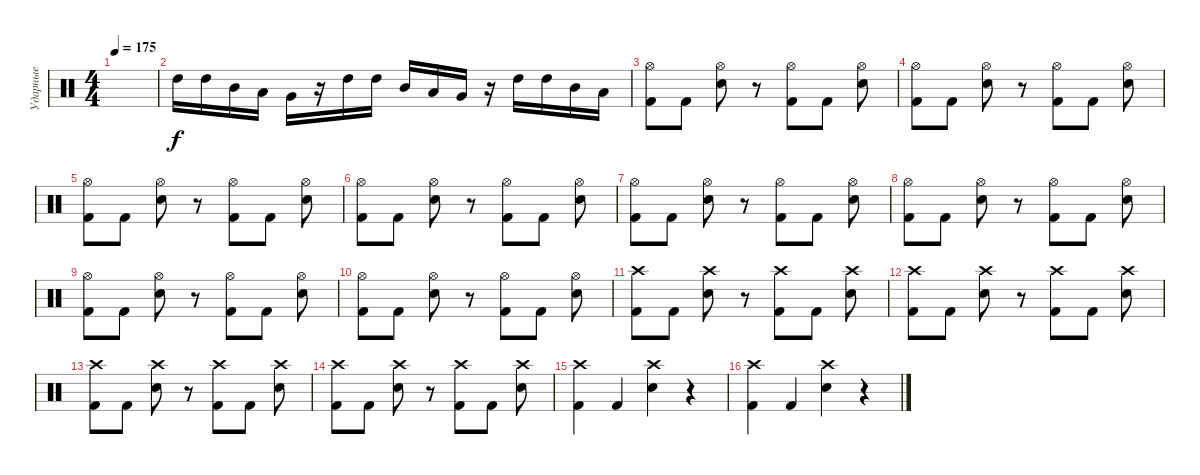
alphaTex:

\track ("Ударные" "Ударные") {instrument percussion}
\staff {score}
\articulation defaults
\ts (4 4)
\tempo 175
\clef neutral
\ks c
|
"High Tom (hit)".16{dy f} "High Tom (hit)".16 "Mid Tom (hit)".16 "Low Tom (hit)".16 "Very Low Tom (hit)".16 r.16 "High Tom (hit)".16 "High Tom (hit)".16 "Mid Tom (hit)".16 "Low Tom (hit)".16 "Very Low Tom (hit)".16 r.16 "High Tom (hit)".16 "High Tom (hit)".16 "Mid Tom (hit)".16 "Low Tom (hit)".16 |
("Kick (hit) 2" "Hi-Hat (open)").8 "Kick (hit) 2".8 ("Electric Snare (hit)" "Hi-Hat (open)").8 r.8 ("Kick (hit) 2" "Hi-Hat (open)").8 "Kick (hit) 2".8 ("Electric Snare (hit)" "Hi-Hat (open)").8 |
("Kick (hit) 2" "Hi-Hat (open)").8 "Kick (hit) 2".8 ("Electric Snare (hit)" "Hi-Hat (open)").8 r.8 ("Kick (hit) 2" "Hi-Hat (open)").8 "Kick (hit) 2".8 ("Electric Snare (hit)" "Hi-Hat (open)").8 |
("Kick (hit) 2" "Hi-Hat (open)").8 "Kick (hit) 2".8 ("Electric Snare (hit)" "Hi-Hat (open)").8 r.8 ("Kick (hit) 2" "Hi-Hat (open)").8 "Kick (hit) 2".8 ("Electric Snare (hit)" "Hi-Hat (open)").8 |
("Kick (hit) 2" "Hi-Hat (open)").8 "Kick (hit) 2".8 ("Electric Snare (hit)" "Hi-Hat (open)").8 r.8 ("Kick (hit) 2" "Hi-Hat (open)").8 "Kick (hit) 2".8 ("Electric Snare (hit)" "Hi-Hat (open)").8 |
("Kick (hit) 2" "Hi-Hat (open)").8 "Kick (hit) 2".8 ("Electric Snare (hit)" "Hi-Hat (open)").8 r.8 ("Kick (hit) 2" "Hi-Hat (open)").8 "Kick (hit) 2".8 ("Electric Snare (hit)" "Hi-Hat (open)").8 |
("Kick (hit) 2" "Hi-Hat (open)").8 "Kick (hit) 2".8 ("Electric Snare (hit)" "Hi-Hat (open)").8 r.8 ("Kick (hit) 2" "Hi-Hat (open)").8 "Kick (hit) 2".8 ("Electric Snare (hit)" "Hi-Hat (open)").8 |
("Kick (hit) 2" "Hi-Hat (open)").8 "Kick (hit) 2".8 ("Electric Snare (hit)" "Hi-Hat (open)").8 r.8 ("Kick (hit) 2" "Hi-Hat (open)").8 "Kick (hit) 2".8 ("Electric Snare (hit)" "Hi-Hat (open)").8 |
("Kick (hit) 2" "Hi-Hat (open)").8 "Kick (hit) 2".8 ("Electric Snare (hit)" "Hi-Hat (open)").8 r.8 ("Kick (hit) 2" "Hi-Hat (open)").8 "Kick (hit) 2".8 ("Electric Snare (hit)" "Hi-Hat (open)").8 |
("Kick (hit) 2" "Crash high (hit)").8 "Kick (hit) 2".8 ("Electric Snare (hit)" "Crash high (hit)").8 r.8 ("Kick (hit) 2" "Crash high (hit)").8 "Kick (hit) 2".8 ("Electric Snare (hit)" "Crash high (hit)").8 |
("Kick (hit) 2" "Crash high (hit)").8 "Kick (hit) 2".8 ("Electric Snare (hit)" "Crash high (hit)").8 r.8 ("Kick (hit) 2" "Crash high (hit)").8 "Kick (hit) 2".8 ("Electric Snare (hit)" "Crash high (hit)").8 |
("Kick (hit) 2" "Crash high (hit)").8 "Kick (hit) 2".8 ("Electric Snare (hit)" "Crash high (hit)").8 r.8 ("Kick (hit) 2" "Crash high (hit)").8 "Kick (hit) 2".8 ("Electric Snare (hit)" "Crash high (hit)").8 |
("Kick (hit) 2" "Crash high (hit)").8 "Kick (hit) 2".8 ("Electric Snare (hit)" "Crash high (hit)").8 r.8 ("Kick (hit) 2" "Crash high (hit)").8 "Kick (hit) 2".8 ("Electric Snare (hit)" "Crash high (hit)").8 |
("Kick (hit) 2" "Crash high (hit)").4 "Kick (hit) 2".4 ("Electric Snare (hit)" "Crash high (hit)").4 r.4 |
("Kick (hit) 2" "Crash high (hit)").4 "Kick (hit) 2".4 ("Electric Snare (hit)" "Crash high (hit)").4 r.4
